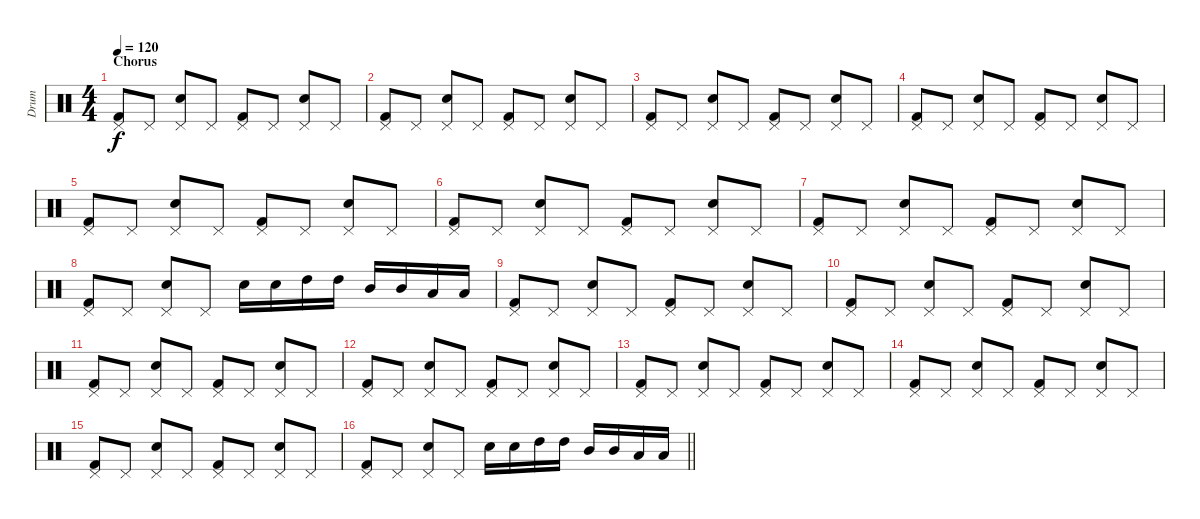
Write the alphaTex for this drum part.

\track ("Drum" "Drum") {instrument percussion}
\staff {score}
\articulation defaults
\ts (4 4)
\section ("" "Chorus")
\tempo 120
\clef neutral
\ks c
("Pedal Hi-Hat (hit)" "Kick (hit) 2").8{dy f} "Pedal Hi-Hat (hit)".8 ("Pedal Hi-Hat (hit)" "Electric Snare (hit)").8 "Pedal Hi-Hat (hit)".8 ("Pedal Hi-Hat (hit)" "Kick (hit) 2").8 "Pedal Hi-Hat (hit)".8 ("Pedal Hi-Hat (hit)" "Electric Snare (hit)").8 "Pedal Hi-Hat (hit)".8 |
("Pedal Hi-Hat (hit)" "Kick (hit) 2").8 "Pedal Hi-Hat (hit)".8 ("Pedal Hi-Hat (hit)" "Electric Snare (hit)").8 "Pedal Hi-Hat (hit)".8 ("Pedal Hi-Hat (hit)" "Kick (hit) 2").8 "Pedal Hi-Hat (hit)".8 ("Pedal Hi-Hat (hit)" "Electric Snare (hit)").8 "Pedal Hi-Hat (hit)".8 |
("Pedal Hi-Hat (hit)" "Kick (hit) 2").8 "Pedal Hi-Hat (hit)".8 ("Pedal Hi-Hat (hit)" "Electric Snare (hit)").8 "Pedal Hi-Hat (hit)".8 ("Pedal Hi-Hat (hit)" "Kick (hit) 2").8 "Pedal Hi-Hat (hit)".8 ("Pedal Hi-Hat (hit)" "Electric Snare (hit)").8 "Pedal Hi-Hat (hit)".8 |
("Pedal Hi-Hat (hit)" "Kick (hit) 2").8 "Pedal Hi-Hat (hit)".8 ("Pedal Hi-Hat (hit)" "Electric Snare (hit)").8 "Pedal Hi-Hat (hit)".8 ("Pedal Hi-Hat (hit)" "Kick (hit) 2").8 "Pedal Hi-Hat (hit)".8 ("Pedal Hi-Hat (hit)" "Electric Snare (hit)").8 "Pedal Hi-Hat (hit)".8 |
("Pedal Hi-Hat (hit)" "Kick (hit) 2").8 "Pedal Hi-Hat (hit)".8 ("Pedal Hi-Hat (hit)" "Electric Snare (hit)").8 "Pedal Hi-Hat (hit)".8 ("Pedal Hi-Hat (hit)" "Kick (hit) 2").8 "Pedal Hi-Hat (hit)".8 ("Pedal Hi-Hat (hit)" "Electric Snare (hit)").8 "Pedal Hi-Hat (hit)".8 |
("Pedal Hi-Hat (hit)" "Kick (hit) 2").8 "Pedal Hi-Hat (hit)".8 ("Pedal Hi-Hat (hit)" "Electric Snare (hit)").8 "Pedal Hi-Hat (hit)".8 ("Pedal Hi-Hat (hit)" "Kick (hit) 2").8 "Pedal Hi-Hat (hit)".8 ("Pedal Hi-Hat (hit)" "Electric Snare (hit)").8 "Pedal Hi-Hat (hit)".8 |
("Pedal Hi-Hat (hit)" "Kick (hit) 2").8 "Pedal Hi-Hat (hit)".8 ("Pedal Hi-Hat (hit)" "Electric Snare (hit)").8 "Pedal Hi-Hat (hit)".8 ("Pedal Hi-Hat (hit)" "Kick (hit) 2").8 "Pedal Hi-Hat (hit)".8 ("Pedal Hi-Hat (hit)" "Electric Snare (hit)").8 "Pedal Hi-Hat (hit)".8 |
("Pedal Hi-Hat (hit)" "Kick (hit) 2").8 "Pedal Hi-Hat (hit)".8 ("Pedal Hi-Hat (hit)" "Electric Snare (hit)").8 "Pedal Hi-Hat (hit)".8 "Electric Snare (hit)".16 "Electric Snare (hit)".16 "High Tom (hit)".16 "High Tom (hit)".16 "Mid Tom (hit)".16 "Mid Tom (hit)".16 "Low Tom (hit)".16 "Low Tom (hit)".16 |
("Pedal Hi-Hat (hit)" "Kick (hit) 2").8 "Pedal Hi-Hat (hit)".8 ("Pedal Hi-Hat (hit)" "Electric Snare (hit)").8 "Pedal Hi-Hat (hit)".8 ("Pedal Hi-Hat (hit)" "Kick (hit) 2").8 "Pedal Hi-Hat (hit)".8 ("Pedal Hi-Hat (hit)" "Electric Snare (hit)").8 "Pedal Hi-Hat (hit)".8 |
("Pedal Hi-Hat (hit)" "Kick (hit) 2").8 "Pedal Hi-Hat (hit)".8 ("Pedal Hi-Hat (hit)" "Electric Snare (hit)").8 "Pedal Hi-Hat (hit)".8 ("Pedal Hi-Hat (hit)" "Kick (hit) 2").8 "Pedal Hi-Hat (hit)".8 ("Pedal Hi-Hat (hit)" "Electric Snare (hit)").8 "Pedal Hi-Hat (hit)".8 |
("Pedal Hi-Hat (hit)" "Kick (hit) 2").8 "Pedal Hi-Hat (hit)".8 ("Pedal Hi-Hat (hit)" "Electric Snare (hit)").8 "Pedal Hi-Hat (hit)".8 ("Pedal Hi-Hat (hit)" "Kick (hit) 2").8 "Pedal Hi-Hat (hit)".8 ("Pedal Hi-Hat (hit)" "Electric Snare (hit)").8 "Pedal Hi-Hat (hit)".8 |
("Pedal Hi-Hat (hit)" "Kick (hit) 2").8 "Pedal Hi-Hat (hit)".8 ("Pedal Hi-Hat (hit)" "Electric Snare (hit)").8 "Pedal Hi-Hat (hit)".8 ("Pedal Hi-Hat (hit)" "Kick (hit) 2").8 "Pedal Hi-Hat (hit)".8 ("Pedal Hi-Hat (hit)" "Electric Snare (hit)").8 "Pedal Hi-Hat (hit)".8 |
("Pedal Hi-Hat (hit)" "Kick (hit) 2").8 "Pedal Hi-Hat (hit)".8 ("Pedal Hi-Hat (hit)" "Electric Snare (hit)").8 "Pedal Hi-Hat (hit)".8 ("Pedal Hi-Hat (hit)" "Kick (hit) 2").8 "Pedal Hi-Hat (hit)".8 ("Pedal Hi-Hat (hit)" "Electric Snare (hit)").8 "Pedal Hi-Hat (hit)".8 |
("Pedal Hi-Hat (hit)" "Kick (hit) 2").8 "Pedal Hi-Hat (hit)".8 ("Pedal Hi-Hat (hit)" "Electric Snare (hit)").8 "Pedal Hi-Hat (hit)".8 ("Pedal Hi-Hat (hit)" "Kick (hit) 2").8 "Pedal Hi-Hat (hit)".8 ("Pedal Hi-Hat (hit)" "Electric Snare (hit)").8 "Pedal Hi-Hat (hit)".8 |
("Pedal Hi-Hat (hit)" "Kick (hit) 2").8 "Pedal Hi-Hat (hit)".8 ("Pedal Hi-Hat (hit)" "Electric Snare (hit)").8 "Pedal Hi-Hat (hit)".8 ("Pedal Hi-Hat (hit)" "Kick (hit) 2").8 "Pedal Hi-Hat (hit)".8 ("Pedal Hi-Hat (hit)" "Electric Snare (hit)").8 "Pedal Hi-Hat (hit)".8 |
\barLineRight lightlight
("Pedal Hi-Hat (hit)" "Kick (hit) 2").8 "Pedal Hi-Hat (hit)".8 ("Pedal Hi-Hat (hit)" "Electric Snare (hit)").8 "Pedal Hi-Hat (hit)".8 "Electric Snare (hit)".16 "Electric Snare (hit)".16 "High Tom (hit)".16 "High Tom (hit)".16 "Mid Tom (hit)".16 "Mid Tom (hit)".16 "Low Tom (hit)".16 "Low Tom (hit)".16
